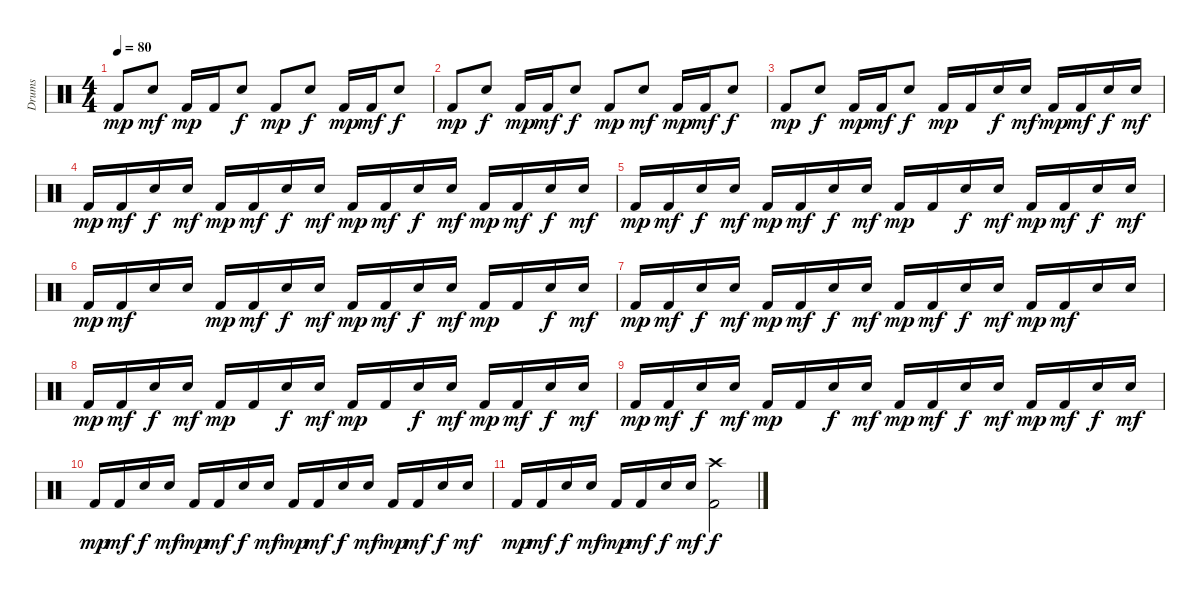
\track ("Drums" "Drums") {instrument percussion}
\staff {score}
\articulation defaults
\ts (4 4)
\tempo 80
\clef neutral
\ks c "Kick (hit) 2".8{dy mp} "Snare (hit) 2".8{dy mf} "Kick (hit) 2".16{dy mp} "Kick (hit) 2".16 "Snare (hit) 2".8{dy f} "Kick (hit) 2".8{dy mp} "Snare (hit) 2".8{dy f} "Kick (hit) 2".16{dy mp} "Kick (hit) 2".16{dy mf} "Snare (hit) 2".8{dy f}
|
"Kick (hit) 2".8{dy mp} "Snare (hit) 2".8{dy f} "Kick (hit) 2".16{dy mp} "Kick (hit) 2".16{dy mf} "Snare (hit) 2".8{dy f} "Kick (hit) 2".8{dy mp} "Snare (hit) 2".8{dy mf} "Kick (hit) 2".16{dy mp} "Kick (hit) 2".16{dy mf} "Snare (hit) 2".8{dy f} |
"Kick (hit) 2".8{dy mp} "Snare (hit) 2".8{dy f} "Kick (hit) 2".16{dy mp} "Kick (hit) 2".16{dy mf} "Snare (hit) 2".8{dy f} "Kick (hit) 2".16{dy mp} "Kick (hit) 2".16 "Snare (hit) 2".16{dy f} "Snare (hit) 2".16{dy mf} "Kick (hit) 2".16{dy mp} "Kick (hit) 2".16{dy mf} "Snare (hit) 2".16{dy f} "Snare (hit) 2".16{dy mf} |
"Kick (hit) 2".16{dy mp} "Kick (hit) 2".16{dy mf} "Snare (hit) 2".16{dy f} "Snare (hit) 2".16{dy mf} "Kick (hit) 2".16{dy mp} "Kick (hit) 2".16{dy mf} "Snare (hit) 2".16{dy f} "Snare (hit) 2".16{dy mf} "Kick (hit) 2".16{dy mp} "Kick (hit) 2".16{dy mf} "Snare (hit) 2".16{dy f} "Snare (hit) 2".16{dy mf} "Kick (hit) 2".16{dy mp} "Kick (hit) 2".16{dy mf} "Snare (hit) 2".16{dy f} "Snare (hit) 2".16{dy mf} |
"Kick (hit) 2".16{dy mp} "Kick (hit) 2".16{dy mf} "Snare (hit) 2".16{dy f} "Snare (hit) 2".16{dy mf} "Kick (hit) 2".16{dy mp} "Kick (hit) 2".16{dy mf} "Snare (hit) 2".16{dy f} "Snare (hit) 2".16{dy mf} "Kick (hit) 2".16{dy mp} "Kick (hit) 2".16 "Snare (hit) 2".16{dy f} "Snare (hit) 2".16{dy mf} "Kick (hit) 2".16{dy mp} "Kick (hit) 2".16{dy mf} "Snare (hit) 2".16{dy f} "Snare (hit) 2".16{dy mf} |
"Kick (hit) 2".16{dy mp} "Kick (hit) 2".16{dy mf} "Snare (hit) 2".16 "Snare (hit) 2".16 "Kick (hit) 2".16{dy mp} "Kick (hit) 2".16{dy mf} "Snare (hit) 2".16{dy f} "Snare (hit) 2".16{dy mf} "Kick (hit) 2".16{dy mp} "Kick (hit) 2".16{dy mf} "Snare (hit) 2".16{dy f} "Snare (hit) 2".16{dy mf} "Kick (hit) 2".16{dy mp} "Kick (hit) 2".16 "Snare (hit) 2".16{dy f} "Snare (hit) 2".16{dy mf} |
"Kick (hit) 2".16{dy mp} "Kick (hit) 2".16{dy mf} "Snare (hit) 2".16{dy f} "Snare (hit) 2".16{dy mf} "Kick (hit) 2".16{dy mp} "Kick (hit) 2".16{dy mf} "Snare (hit) 2".16{dy f} "Snare (hit) 2".16{dy mf} "Kick (hit) 2".16{dy mp} "Kick (hit) 2".16{dy mf} "Snare (hit) 2".16{dy f} "Snare (hit) 2".16{dy mf} "Kick (hit) 2".16{dy mp} "Kick (hit) 2".16{dy mf} "Snare (hit) 2".16 "Snare (hit) 2".16 |
"Kick (hit) 2".16{dy mp} "Kick (hit) 2".16{dy mf} "Snare (hit) 2".16{dy f} "Snare (hit) 2".16{dy mf} "Kick (hit) 2".16{dy mp} "Kick (hit) 2".16 "Snare (hit) 2".16{dy f} "Snare (hit) 2".16{dy mf} "Kick (hit) 2".16{dy mp} "Kick (hit) 2".16 "Snare (hit) 2".16{dy f} "Snare (hit) 2".16{dy mf} "Kick (hit) 2".16{dy mp} "Kick (hit) 2".16{dy mf} "Snare (hit) 2".16{dy f} "Snare (hit) 2".16{dy mf} |
"Kick (hit) 2".16{dy mp} "Kick (hit) 2".16{dy mf} "Snare (hit) 2".16{dy f} "Snare (hit) 2".16{dy mf} "Kick (hit) 2".16{dy mp} "Kick (hit) 2".16 "Snare (hit) 2".16{dy f} "Snare (hit) 2".16{dy mf} "Kick (hit) 2".16{dy mp} "Kick (hit) 2".16{dy mf} "Snare (hit) 2".16{dy f} "Snare (hit) 2".16{dy mf} "Kick (hit) 2".16{dy mp} "Kick (hit) 2".16{dy mf} "Snare (hit) 2".16{dy f} "Snare (hit) 2".16{dy mf} |
"Kick (hit) 2".16{dy mp} "Kick (hit) 2".16{dy mf} "Snare (hit) 2".16{dy f} "Snare (hit) 2".16{dy mf} "Kick (hit) 2".16{dy mp} "Kick (hit) 2".16{dy mf} "Snare (hit) 2".16{dy f} "Snare (hit) 2".16{dy mf} "Kick (hit) 2".16{dy mp} "Kick (hit) 2".16{dy mf} "Snare (hit) 2".16{dy f} "Snare (hit) 2".16{dy mf} "Kick (hit) 2".16{dy mp} "Kick (hit) 2".16{dy mf} "Snare (hit) 2".16{dy f} "Snare (hit) 2".16{dy mf} |
"Kick (hit) 2".16{dy mp} "Kick (hit) 2".16{dy mf} "Snare (hit) 2".16{dy f} "Snare (hit) 2".16{dy mf} "Kick (hit) 2".16{dy mp} "Kick (hit) 2".16{dy mf} "Snare (hit) 2".16{dy f} "Snare (hit) 2".16{dy mf} ("Kick (hit) 2" "Crash high (hit)").2{dy f}
